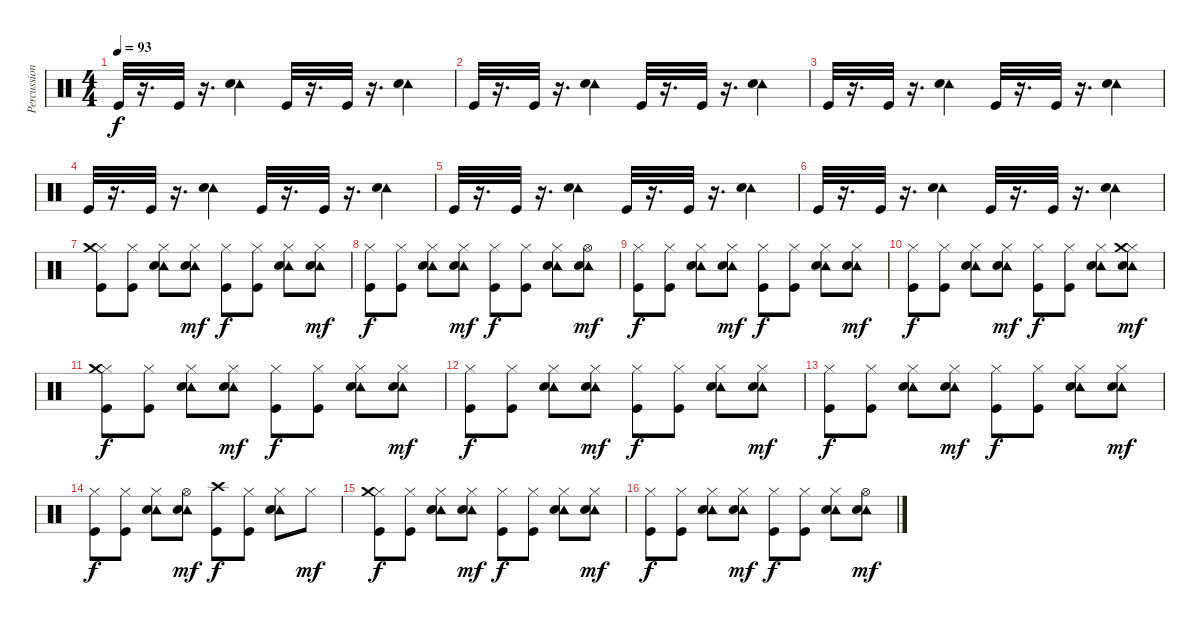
\track ("Percussions" "Percussion") {instrument percussion}
\staff {score}
\articulation defaults
\ts (4 4)
\tempo 93
\clef neutral
\ks c "Kick (hit)".32{dy f}
r.16{d} "Kick (hit)".32 r.16{d} ("Tambourine (hit)" "Snare (hit) 2").4 "Kick (hit)".32 r.16{d} "Kick (hit)".32 r.16{d} ("Tambourine (hit)" "Snare (hit) 2").4 |
"Kick (hit)".32 r.16{d} "Kick (hit)".32 r.16{d} ("Tambourine (hit)" "Snare (hit) 2").4 "Kick (hit)".32 r.16{d} "Kick (hit)".32 r.16{d} ("Tambourine (hit)" "Snare (hit) 2").4 |
"Kick (hit)".32 r.16{d} "Kick (hit)".32 r.16{d} ("Tambourine (hit)" "Snare (hit) 2").4 "Kick (hit)".32 r.16{d} "Kick (hit)".32 r.16{d} ("Tambourine (hit)" "Snare (hit) 2").4 |
"Kick (hit)".32 r.16{d} "Kick (hit)".32 r.16{d} ("Tambourine (hit)" "Snare (hit) 2").4 "Kick (hit)".32 r.16{d} "Kick (hit)".32 r.16{d} ("Tambourine (hit)" "Snare (hit) 2").4 |
\section ("" "")
"Kick (hit)".32 r.16{d} "Kick (hit)".32 r.16{d} ("Tambourine (hit)" "Snare (hit) 2").4 "Kick (hit)".32 r.16{d} "Kick (hit)".32 r.16{d} ("Tambourine (hit)" "Snare (hit) 2").4 |
"Kick (hit)".32 r.16{d} "Kick (hit)".32 r.16{d} ("Tambourine (hit)" "Snare (hit) 2").4 "Kick (hit)".32 r.16{d} "Kick (hit)".32 r.16{d} ("Tambourine (hit)" "Snare (hit) 2").4 |
("Hi-Hat (closed)" "Crash medium (hit)" "Kick (hit)").8 ("Hi-Hat (closed)" "Kick (hit)").8 ("Hi-Hat (closed)" "Tambourine (hit)" "Snare (hit) 2").8 ("Hi-Hat (closed)" "Tambourine (hit)" "Snare (hit) 2").8{dy mf} ("Hi-Hat (closed)" "Kick (hit)").8{dy f} ("Hi-Hat (closed)" "Kick (hit)").8 ("Hi-Hat (closed)" "Tambourine (hit)" "Snare (hit) 2").8 ("Hi-Hat (closed)" "Tambourine (hit)" "Snare (hit) 2").8{dy mf} |
("Hi-Hat (closed)" "Kick (hit)").8{dy f} ("Hi-Hat (closed)" "Kick (hit)").8 ("Hi-Hat (closed)" "Tambourine (hit)" "Snare (hit) 2").8 ("Hi-Hat (closed)" "Tambourine (hit)" "Snare (hit) 2").8{dy mf} ("Hi-Hat (closed)" "Kick (hit)").8{dy f} ("Hi-Hat (closed)" "Kick (hit)").8 ("Hi-Hat (closed)" "Tambourine (hit)" "Snare (hit) 2").8 ("Hi-Hat (open)" "Tambourine (hit)" "Snare (hit) 2").8{dy mf} |
("Hi-Hat (closed)" "Kick (hit)").8{dy f} ("Hi-Hat (closed)" "Kick (hit)").8 ("Hi-Hat (closed)" "Tambourine (hit)" "Snare (hit) 2").8 ("Hi-Hat (closed)" "Tambourine (hit)" "Snare (hit) 2").8{dy mf} ("Hi-Hat (closed)" "Kick (hit)").8{dy f} ("Hi-Hat (closed)" "Kick (hit)").8 ("Hi-Hat (closed)" "Tambourine (hit)" "Snare (hit) 2").8 ("Hi-Hat (closed)" "Tambourine (hit)" "Snare (hit) 2").8{dy mf} |
("Hi-Hat (closed)" "Kick (hit)").8{dy f} ("Hi-Hat (closed)" "Kick (hit)").8 ("Hi-Hat (closed)" "Tambourine (hit)" "Snare (hit) 2").8 ("Hi-Hat (closed)" "Tambourine (hit)" "Snare (hit) 2").8{dy mf} ("Hi-Hat (closed)" "Kick (hit)").8{dy f} ("Hi-Hat (closed)" "Kick (hit)").8 ("Hi-Hat (closed)" "Tambourine (hit)" "Snare (hit) 2").8 ("Hi-Hat (closed)" "Crash medium (hit)" "Tambourine (hit)" "Snare (hit) 2").8{dy mf} |
("Hi-Hat (closed)" "Crash medium (hit)" "Kick (hit)").8{dy f} ("Hi-Hat (closed)" "Kick (hit)").8 ("Hi-Hat (closed)" "Tambourine (hit)" "Snare (hit) 2").8 ("Hi-Hat (closed)" "Tambourine (hit)" "Snare (hit) 2").8{dy mf} ("Hi-Hat (closed)" "Kick (hit)").8{dy f} ("Hi-Hat (closed)" "Kick (hit)").8 ("Hi-Hat (closed)" "Tambourine (hit)" "Snare (hit) 2").8 ("Hi-Hat (closed)" "Tambourine (hit)" "Snare (hit) 2").8{dy mf} |
("Hi-Hat (closed)" "Kick (hit)").8{dy f} ("Hi-Hat (closed)" "Kick (hit)").8 ("Hi-Hat (closed)" "Tambourine (hit)" "Snare (hit) 2").8 ("Hi-Hat (closed)" "Tambourine (hit)" "Snare (hit) 2").8{dy mf} ("Hi-Hat (closed)" "Kick (hit)").8{dy f} ("Hi-Hat (closed)" "Kick (hit)").8 ("Hi-Hat (closed)" "Tambourine (hit)" "Snare (hit) 2").8 ("Hi-Hat (closed)" "Tambourine (hit)" "Snare (hit) 2").8{dy mf} |
("Hi-Hat (closed)" "Kick (hit)").8{dy f} ("Hi-Hat (closed)" "Kick (hit)").8 ("Hi-Hat (closed)" "Tambourine (hit)" "Snare (hit) 2").8 ("Hi-Hat (closed)" "Tambourine (hit)" "Snare (hit) 2").8{dy mf} ("Hi-Hat (closed)" "Kick (hit)").8{dy f} ("Hi-Hat (closed)" "Kick (hit)").8 ("Hi-Hat (closed)" "Tambourine (hit)" "Snare (hit) 2").8 ("Hi-Hat (closed)" "Tambourine (hit)" "Snare (hit) 2").8{dy mf} |
("Hi-Hat (closed)" "Kick (hit)").8{dy f} ("Hi-Hat (closed)" "Kick (hit)").8 ("Hi-Hat (closed)" "Tambourine (hit)" "Snare (hit) 2").8 ("Hi-Hat (open)" "Tambourine (hit)" "Snare (hit) 2").8{dy mf} ("Crash high (hit)" "Kick (hit)").8{dy f} ("Hi-Hat (closed)" "Kick (hit)").8 ("Hi-Hat (closed)" "Tambourine (hit)" "Snare (hit) 2").8 "Hi-Hat (closed)".8{dy mf} |
("Hi-Hat (closed)" "Crash medium (hit)" "Kick (hit)").8{dy f} ("Hi-Hat (closed)" "Kick (hit)").8 ("Hi-Hat (closed)" "Tambourine (hit)" "Snare (hit) 2").8 ("Hi-Hat (closed)" "Tambourine (hit)" "Snare (hit) 2").8{dy mf} ("Hi-Hat (closed)" "Kick (hit)").8{dy f} ("Hi-Hat (closed)" "Kick (hit)").8 ("Hi-Hat (closed)" "Tambourine (hit)" "Snare (hit) 2").8 ("Hi-Hat (closed)" "Tambourine (hit)" "Snare (hit) 2").8{dy mf} |
("Hi-Hat (closed)" "Kick (hit)").8{dy f} ("Hi-Hat (closed)" "Kick (hit)").8 ("Hi-Hat (closed)" "Tambourine (hit)" "Snare (hit) 2").8 ("Hi-Hat (closed)" "Tambourine (hit)" "Snare (hit) 2").8{dy mf} ("Hi-Hat (closed)" "Kick (hit)").8{dy f} ("Hi-Hat (closed)" "Kick (hit)").8 ("Hi-Hat (closed)" "Tambourine (hit)" "Snare (hit) 2").8 ("Hi-Hat (open)" "Tambourine (hit)" "Snare (hit) 2").8{dy mf}
